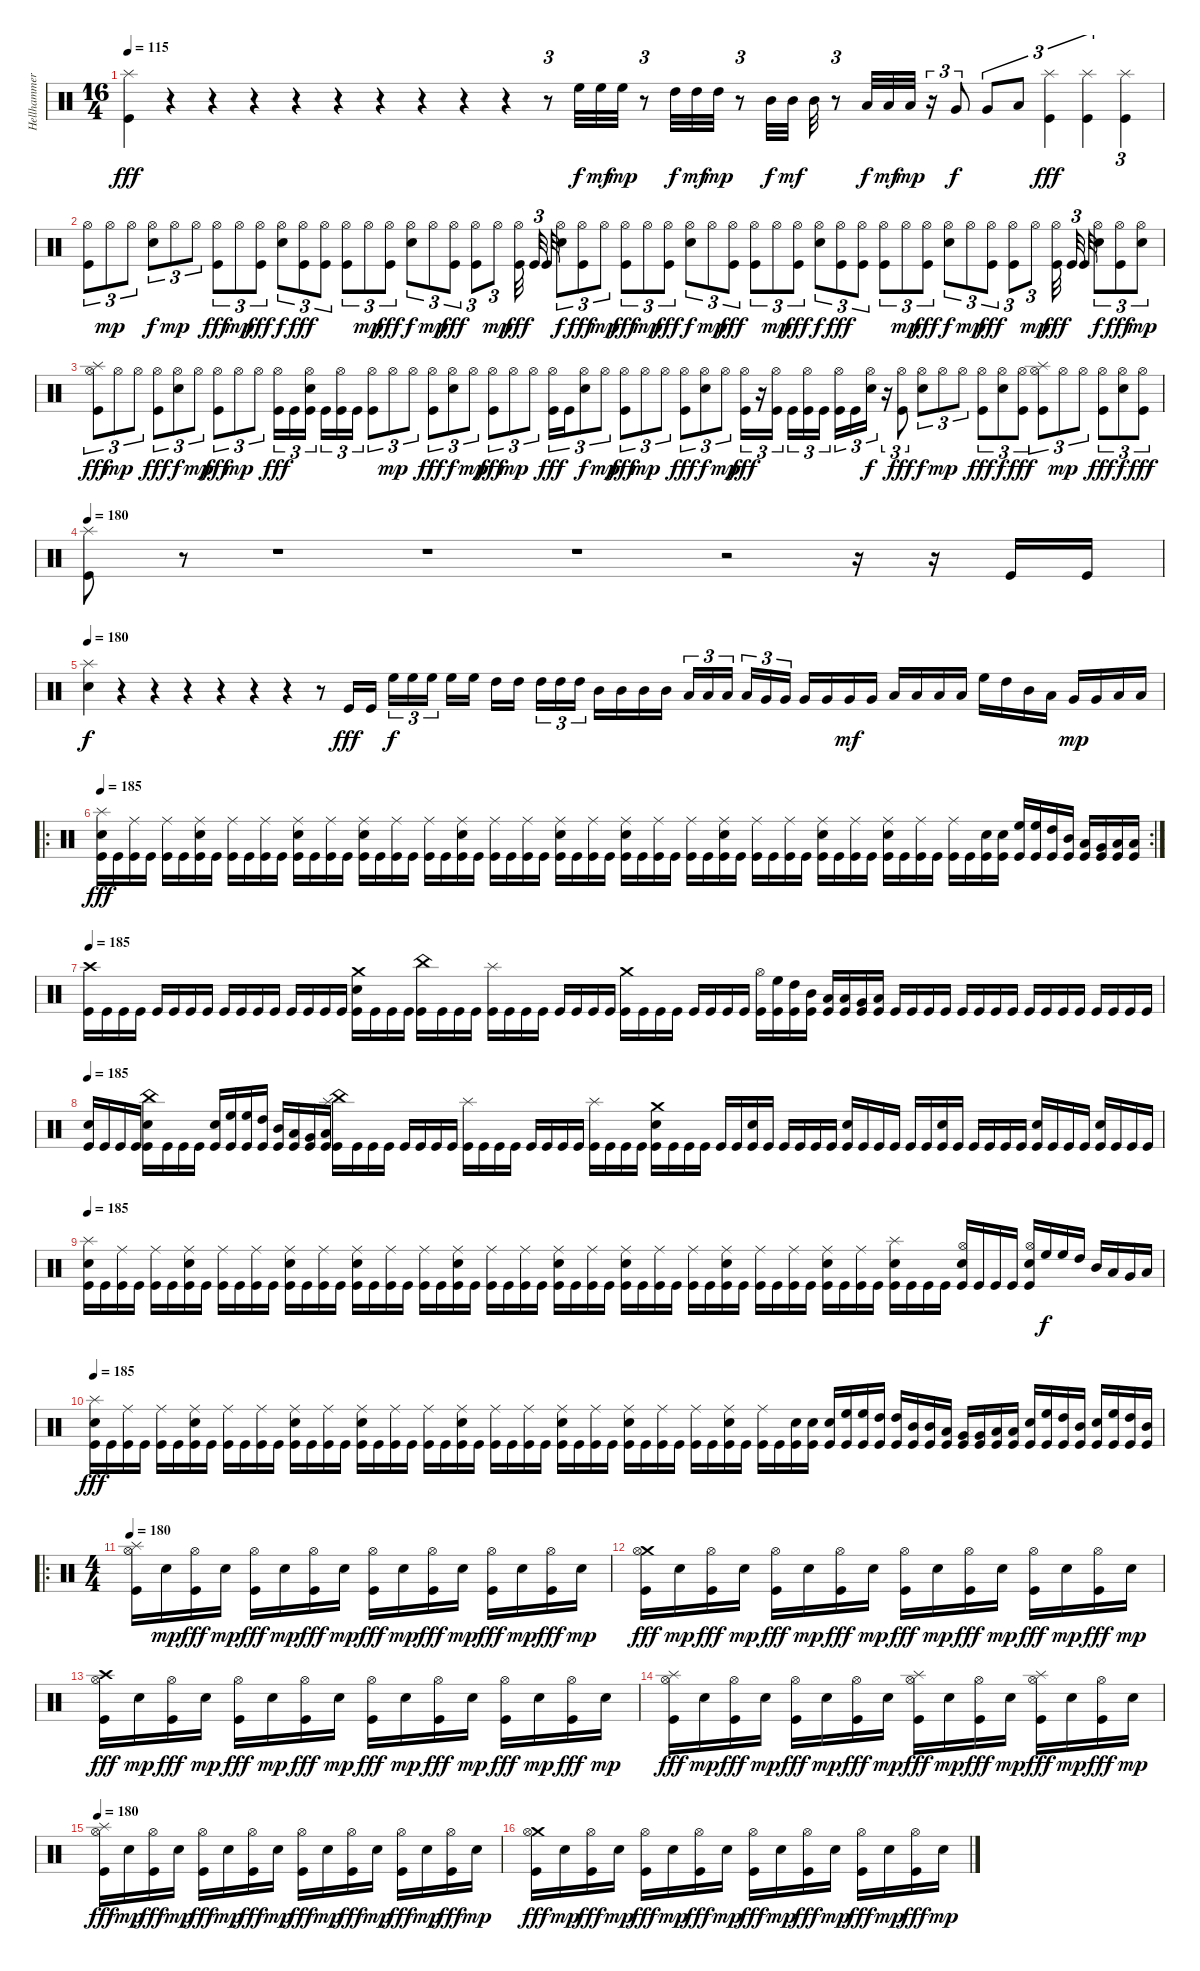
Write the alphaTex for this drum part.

\track ("Hellhammer" "Hellhammer") {instrument percussion}
\staff {score}
\articulation defaults
\ts (16 4)
\tempo 115
\clef neutral
\ks c
("Splash (hit)" "Kick (hit)").4{dy fff} r.4 r.4 r.4 r.4 r.4 r.4 r.4 r.4 r.4 r.8{tu (3 2)} "High Floor Tom (hit)".32{dy f} "High Floor Tom (hit)".32{dy mf} "High Floor Tom (hit)".32{dy mp} r.8{tu (3 2)} "High Tom (hit)".32{dy f} "High Tom (hit)".32{dy mf} "High Tom (hit)".32{dy mp} r.8{tu (3 2)} "Mid Tom (hit)".32{dy f} "Mid Tom (hit)".32{dy mf} "Mid Tom (hit)".32 r.8{tu (3 2)} "Low Tom (hit)".32{dy f} "Low Tom (hit)".32{dy mf} "Low Tom (hit)".32{dy mp} r.16{tu (3 2)} "Very Low Tom (hit)".8{tu (3 2) dy f} "Very Low Tom (hit)".8{tu (3 2)} "Low Floor Tom (hit)".8{tu (3 2)} ("Splash (hit)" "Kick (hit)").4{tu (3 2) dy fff} ("Splash (hit)" "Kick (hit)").4{tu (3 2)} ("Splash (hit)" "Kick (hit)").4{tu (3 2)} |
("Hi-Hat (open)" "Kick (hit)").8{tu (3 2)} "Hi-Hat (open)".8{tu (3 2) dy mp} "Hi-Hat (open)".8{tu (3 2)} ("Hi-Hat (open)" "Electric Snare (hit)").8{tu (3 2) dy f} "Hi-Hat (open)".8{tu (3 2) dy mp} "Hi-Hat (open)".8{tu (3 2)} ("Hi-Hat (open)" "Kick (hit)").8{tu (3 2) dy fff} "Hi-Hat (open)".8{tu (3 2) dy mp} ("Hi-Hat (open)" "Kick (hit)").8{tu (3 2) dy fff} ("Hi-Hat (open)" "Electric Snare (hit)").8{tu (3 2) dy f} ("Hi-Hat (open)" "Kick (hit)").8{tu (3 2) dy fff} ("Hi-Hat (open)" "Kick (hit)").8{tu (3 2)} ("Hi-Hat (open)" "Kick (hit)").8{tu (3 2)} "Hi-Hat (open)".8{tu (3 2) dy mp} ("Hi-Hat (open)" "Kick (hit)").8{tu (3 2) dy fff} ("Hi-Hat (open)" "Electric Snare (hit)").8{tu (3 2) dy f} "Hi-Hat (open)".8{tu (3 2) dy mp} ("Hi-Hat (open)" "Kick (hit)").8{tu (3 2) dy fff} ("Hi-Hat (open)" "Kick (hit)").8{tu (3 2)} "Hi-Hat (open)".8{tu (3 2) dy mp} ("Hi-Hat (open)" "Kick (hit)").32{dy fff} "Kick (hit)".32{tu (3 2)} "Kick (hit)".32 ("Hi-Hat (open)" "Electric Snare (hit)").8{tu (3 2) dy f} ("Hi-Hat (open)" "Kick (hit)").8{tu (3 2) dy fff} "Hi-Hat (open)".8{tu (3 2) dy mp} ("Hi-Hat (open)" "Kick (hit)").8{tu (3 2) dy fff} "Hi-Hat (open)".8{tu (3 2) dy mp} ("Hi-Hat (open)" "Kick (hit)").8{tu (3 2) dy fff} ("Hi-Hat (open)" "Electric Snare (hit)").8{tu (3 2) dy f} "Hi-Hat (open)".8{tu (3 2) dy mp} ("Hi-Hat (open)" "Kick (hit)").8{tu (3 2) dy fff} ("Hi-Hat (open)" "Kick (hit)").8{tu (3 2)} "Hi-Hat (open)".8{tu (3 2) dy mp} ("Hi-Hat (open)" "Kick (hit)").8{tu (3 2) dy fff} ("Hi-Hat (open)" "Electric Snare (hit)").8{tu (3 2) dy f} ("Hi-Hat (open)" "Kick (hit)").8{tu (3 2) dy fff} ("Hi-Hat (open)" "Kick (hit)").8{tu (3 2)} ("Hi-Hat (open)" "Kick (hit)").8{tu (3 2)} "Hi-Hat (open)".8{tu (3 2) dy mp} ("Hi-Hat (open)" "Kick (hit)").8{tu (3 2) dy fff} ("Hi-Hat (open)" "Electric Snare (hit)").8{tu (3 2) dy f} "Hi-Hat (open)".8{tu (3 2) dy mp} ("Hi-Hat (open)" "Kick (hit)").8{tu (3 2) dy fff} ("Hi-Hat (open)" "Kick (hit)").8{tu (3 2)} "Hi-Hat (open)".8{tu (3 2) dy mp} ("Hi-Hat (open)" "Kick (hit)").32{dy fff} "Kick (hit)".32{tu (3 2)} "Kick (hit)".32 ("Hi-Hat (open)" "Electric Snare (hit)").8{tu (3 2) dy f} ("Hi-Hat (open)" "Kick (hit)").8{tu (3 2) dy fff} ("Hi-Hat (open)" "Electric Snare (hit)").8{tu (3 2) dy mp} |
("Splash (hit)" "Hi-Hat (open)" "Kick (hit)").8{tu (3 2) dy fff} "Hi-Hat (open)".8{tu (3 2) dy mp} "Hi-Hat (open)".8{tu (3 2)} ("Hi-Hat (open)" "Kick (hit)").8{tu (3 2) dy fff} ("Hi-Hat (open)" "Electric Snare (hit)").8{tu (3 2) dy f} "Hi-Hat (open)".8{tu (3 2) dy mp} ("Hi-Hat (open)" "Kick (hit)").8{tu (3 2) dy fff} "Hi-Hat (open)".8{tu (3 2) dy mp} "Hi-Hat (open)".8{tu (3 2)} ("Hi-Hat (open)" "Kick (hit)").16{tu (3 2) dy fff} "Kick (hit)".16{tu (3 2)} ("Hi-Hat (open)" "Electric Snare (hit)" "Kick (hit)").16{tu (3 2)} "Kick (hit)".16{tu (3 2)} ("Hi-Hat (open)" "Kick (hit)").16{tu (3 2)} "Kick (hit)".16{tu (3 2)} ("Hi-Hat (open)" "Kick (hit)").8{tu (3 2)} "Hi-Hat (open)".8{tu (3 2) dy mp} "Hi-Hat (open)".8{tu (3 2)} ("Hi-Hat (open)" "Kick (hit)").8{tu (3 2) dy fff} ("Hi-Hat (open)" "Electric Snare (hit)").8{tu (3 2) dy f} "Hi-Hat (open)".8{tu (3 2) dy mp} ("Hi-Hat (open)" "Kick (hit)").8{tu (3 2) dy fff} "Hi-Hat (open)".8{tu (3 2) dy mp} "Hi-Hat (open)".8{tu (3 2)} ("Hi-Hat (open)" "Kick (hit)").16{tu (3 2) dy fff} "Kick (hit)".16{tu (3 2)} ("Hi-Hat (open)" "Electric Snare (hit)").8{tu (3 2) dy f} "Hi-Hat (open)".8{tu (3 2) dy mp} ("Hi-Hat (open)" "Kick (hit)").8{tu (3 2) dy fff} "Hi-Hat (open)".8{tu (3 2) dy mp} "Hi-Hat (open)".8{tu (3 2)} ("Hi-Hat (open)" "Kick (hit)").8{tu (3 2) dy fff} ("Hi-Hat (open)" "Electric Snare (hit)").8{tu (3 2) dy f} "Hi-Hat (open)".8{tu (3 2) dy mp} ("Hi-Hat (open)" "Kick (hit)").16{tu (3 2) dy fff} r.16{tu (3 2)} ("Hi-Hat (open)" "Kick (hit)").16{tu (3 2)} "Kick (hit)".16{tu (3 2)} ("Hi-Hat (open)" "Kick (hit)").16{tu (3 2)} "Kick (hit)".16{tu (3 2)} ("Hi-Hat (open)" "Kick (hit)").16{tu (3 2)} "Kick (hit)".16{tu (3 2)} ("Hi-Hat (open)" "Electric Snare (hit)").16{tu (3 2) dy f} r.16{tu (3 2)} ("Hi-Hat (open)" "Kick (hit)").8{tu (3 2) dy fff} ("Hi-Hat (open)" "Electric Snare (hit)").8{tu (3 2) dy f} "Hi-Hat (open)".8{tu (3 2) dy mp} "Hi-Hat (open)".8{tu (3 2)} ("Hi-Hat (open)" "Kick (hit)").8{tu (3 2) dy fff} ("Hi-Hat (open)" "Electric Snare (hit)").8{tu (3 2) dy f} ("Hi-Hat (open)" "Kick (hit)").8{tu (3 2) dy fff} ("Splash (hit)" "Hi-Hat (open)" "Kick (hit)").8{tu (3 2)} "Hi-Hat (open)".8{tu (3 2) dy mp} "Hi-Hat (open)".8{tu (3 2)} ("Hi-Hat (open)" "Kick (hit)").8{tu (3 2) dy fff} ("Hi-Hat (open)" "Electric Snare (hit)").8{tu (3 2) dy f} ("Hi-Hat (open)" "Kick (hit)").8{tu (3 2) dy fff} |
\tempo 180
("Splash (hit)" "Kick (hit)").8 r.8 r.1 r.1 r.1 r.2 r.16 r.16 "Kick (hit)".16 "Kick (hit)".16 |
\tempo 180
("Splash (hit)" "Electric Snare (hit)").4{dy f} r.4 r.4 r.4 r.4 r.4 r.4 r.8 "Kick (hit)".16{dy fff} "Kick (hit)".16 "High Floor Tom (hit)".16{tu (3 2) dy f} "High Floor Tom (hit)".16{tu (3 2)} "High Floor Tom (hit)".16{tu (3 2)} "High Floor Tom (hit)".16 "High Floor Tom (hit)".16 "High Tom (hit)".16 "High Tom (hit)".16 "High Tom (hit)".16{tu (3 2)} "High Tom (hit)".16{tu (3 2)} "High Tom (hit)".16{tu (3 2)} "Mid Tom (hit)".16 "Mid Tom (hit)".16 "Mid Tom (hit)".16 "Mid Tom (hit)".16 "Low Tom (hit)".16{tu (3 2)} "Low Tom (hit)".16{tu (3 2)} "Low Tom (hit)".16{tu (3 2)} "Low Tom (hit)".16{tu (3 2)} "Very Low Tom (hit)".16{tu (3 2)} "Very Low Tom (hit)".16{tu (3 2)} "Very Low Tom (hit)".16 "Very Low Tom (hit)".16 "Very Low Tom (hit)".16{dy mf} "Very Low Tom (hit)".16 "Low Floor Tom (hit)".16 "Low Floor Tom (hit)".16 "Low Floor Tom (hit)".16 "Low Floor Tom (hit)".16 "High Floor Tom (hit)".16 "High Tom (hit)".16 "Mid Tom (hit)".16 "Low Tom (hit)".16 "Very Low Tom (hit)".16{dy mp} "Very Low Tom (hit)".16 "Low Floor Tom (hit)".16 "Low Floor Tom (hit)".16 |
\ro
\rc 2
\tempo 180
\tempo 185
("Splash (hit)" "Electric Snare (hit)" "Kick (hit)").16{dy fff} "Kick (hit)".16 ("Ride (middle)" "Kick (hit)").16 "Kick (hit)".16 ("Ride (middle)" "Kick (hit)").16 "Kick (hit)".16 ("Ride (middle)" "Electric Snare (hit)" "Kick (hit)").16 "Kick (hit)".16 ("Ride (middle)" "Kick (hit)").16 "Kick (hit)".16 ("Ride (middle)" "Kick (hit)").16 "Kick (hit)".16 ("Ride (middle)" "Electric Snare (hit)" "Kick (hit)").16 "Kick (hit)".16 ("Ride (middle)" "Kick (hit)").16 "Kick (hit)".16 ("Ride (middle)" "Electric Snare (hit)" "Kick (hit)").16 "Kick (hit)".16 ("Ride (middle)" "Kick (hit)").16 "Kick (hit)".16 ("Ride (middle)" "Kick (hit)").16 "Kick (hit)".16 ("Ride (middle)" "Electric Snare (hit)" "Kick (hit)").16 "Kick (hit)".16 ("Ride (middle)" "Kick (hit)").16 "Kick (hit)".16 ("Ride (middle)" "Kick (hit)").16 "Kick (hit)".16 ("Ride (middle)" "Electric Snare (hit)" "Kick (hit)").16 "Kick (hit)".16 ("Ride (middle)" "Kick (hit)").16 "Kick (hit)".16 ("Ride (middle)" "Electric Snare (hit)" "Kick (hit)").16 "Kick (hit)".16 ("Ride (middle)" "Kick (hit)").16 "Kick (hit)".16 ("Ride (middle)" "Kick (hit)").16 "Kick (hit)".16 ("Ride (middle)" "Electric Snare (hit)" "Kick (hit)").16 "Kick (hit)".16 ("Ride (middle)" "Kick (hit)").16 "Kick (hit)".16 ("Ride (middle)" "Kick (hit)").16 "Kick (hit)".16 ("Ride (middle)" "Electric Snare (hit)" "Kick (hit)").16 "Kick (hit)".16 ("Ride (middle)" "Kick (hit)").16 "Kick (hit)".16 ("Ride (middle)" "Electric Snare (hit)" "Kick (hit)").16 "Kick (hit)".16 ("Ride (middle)" "Kick (hit)").16 "Kick (hit)".16 ("Ride (middle)" "Kick (hit)").16 "Kick (hit)".16 ("Electric Snare (hit)" "Kick (hit)").16 ("Electric Snare (hit)" "Kick (hit)").16 ("High Floor Tom (hit)" "Kick (hit)").16 ("High Floor Tom (hit)" "Kick (hit)").16 ("High Tom (hit)" "Kick (hit)").16 ("Mid Tom (hit)" "Kick (hit)").16 ("Low Tom (hit)" "Kick (hit)").16 ("Very Low Tom (hit)" "Kick (hit)").16 ("Low Floor Tom (hit)" "Kick (hit)").16 ("Low Floor Tom (hit)" "Kick (hit)").16 |
\tempo 185
("Crash high (hit)" "Kick (hit)").16 "Kick (hit)".16 "Kick (hit)".16 "Kick (hit)".16 "Kick (hit)".16 "Kick (hit)".16 "Kick (hit)".16 "Kick (hit)".16 "Kick (hit)".16 "Kick (hit)".16 "Kick (hit)".16 "Kick (hit)".16 "Kick (hit)".16 "Kick (hit)".16 "Kick (hit)".16 "Kick (hit)".16 ("Crash medium (hit)" "Electric Snare (hit)" "Kick (hit)").16 "Kick (hit)".16 "Kick (hit)".16 "Kick (hit)".16 ("China (hit)" "Kick (hit)").16 "Kick (hit)".16 "Kick (hit)".16 "Kick (hit)".16 ("Splash (hit)" "Kick (hit)").16 "Kick (hit)".16 "Kick (hit)".16 "Kick (hit)".16 "Kick (hit)".16 "Kick (hit)".16 "Kick (hit)".16 "Kick (hit)".16 ("Crash medium (hit)" "Kick (hit)").16 "Kick (hit)".16 "Kick (hit)".16 "Kick (hit)".16 "Kick (hit)".16 "Kick (hit)".16 "Kick (hit)".16 "Kick (hit)".16 ("Hi-Hat (open)" "Kick (hit)").16 ("High Floor Tom (hit)" "Kick (hit)").16 ("High Tom (hit)" "Kick (hit)").16 ("Mid Tom (hit)" "Kick (hit)").16 ("Low Tom (hit)" "Kick (hit)").16 ("Low Tom (hit)" "Kick (hit)").16 ("Very Low Tom (hit)" "Kick (hit)").16 ("Low Floor Tom (hit)" "Kick (hit)").16 "Kick (hit)".16 "Kick (hit)".16 "Kick (hit)".16 "Kick (hit)".16 "Kick (hit)".16 "Kick (hit)".16 "Kick (hit)".16 "Kick (hit)".16 "Kick (hit)".16 "Kick (hit)".16 "Kick (hit)".16 "Kick (hit)".16 "Kick (hit)".16 "Kick (hit)".16 "Kick (hit)".16 "Kick (hit)".16 |
\tempo 185
("Electric Snare (hit)" "Kick (hit)").16 "Kick (hit)".16 "Kick (hit)".16 "Kick (hit)".16 ("China (hit)" "Electric Snare (hit)" "Kick (hit)").16 "Kick (hit)".16 "Kick (hit)".16 "Kick (hit)".16 ("Electric Snare (hit)" "Kick (hit)").16 ("High Floor Tom (hit)" "Kick (hit)").16 ("High Floor Tom (hit)" "Kick (hit)").16 ("High Tom (hit)" "Kick (hit)").16 ("Mid Tom (hit)" "Kick (hit)").16 ("Low Tom (hit)" "Kick (hit)").16 ("Very Low Tom (hit)" "Kick (hit)").16 ("Low Floor Tom (hit)" "Kick (hit)").16 ("China (hit)" "Splash (hit)" "Kick (hit)").16 "Kick (hit)".16 "Kick (hit)".16 "Kick (hit)".16 "Kick (hit)".16 "Kick (hit)".16 "Kick (hit)".16 "Kick (hit)".16 ("Splash (hit)" "Kick (hit)").16 "Kick (hit)".16 "Kick (hit)".16 "Kick (hit)".16 "Kick (hit)".16 "Kick (hit)".16 "Kick (hit)".16 "Kick (hit)".16 ("Splash (hit)" "Kick (hit)").16 "Kick (hit)".16 "Kick (hit)".16 "Kick (hit)".16 ("Crash medium (hit)" "Electric Snare (hit)" "Kick (hit)").16 "Kick (hit)".16 "Kick (hit)".16 "Kick (hit)".16 "Kick (hit)".16 "Kick (hit)".16 ("Electric Snare (hit)" "Kick (hit)").16 "Kick (hit)".16 "Kick (hit)".16 "Kick (hit)".16 "Kick (hit)".16 "Kick (hit)".16 ("Electric Snare (hit)" "Kick (hit)").16 "Kick (hit)".16 "Kick (hit)".16 "Kick (hit)".16 "Kick (hit)".16 "Kick (hit)".16 ("Electric Snare (hit)" "Kick (hit)").16 "Kick (hit)".16 "Kick (hit)".16 "Kick (hit)".16 "Kick (hit)".16 "Kick (hit)".16 ("Electric Snare (hit)" "Kick (hit)").16 "Kick (hit)".16 "Kick (hit)".16 "Kick (hit)".16 ("Electric Snare (hit)" "Kick (hit)").16 "Kick (hit)".16 "Kick (hit)".16 "Kick (hit)".16 |
\tempo 180
\tempo 185
("Splash (hit)" "Electric Snare (hit)" "Kick (hit)").16 "Kick (hit)".16 ("Ride (middle)" "Kick (hit)").16 "Kick (hit)".16 ("Ride (middle)" "Kick (hit)").16 "Kick (hit)".16 ("Ride (middle)" "Electric Snare (hit)" "Kick (hit)").16 "Kick (hit)".16 ("Ride (middle)" "Kick (hit)").16 "Kick (hit)".16 ("Ride (middle)" "Kick (hit)").16 "Kick (hit)".16 ("Ride (middle)" "Electric Snare (hit)" "Kick (hit)").16 "Kick (hit)".16 ("Ride (middle)" "Kick (hit)").16 "Kick (hit)".16 ("Ride (middle)" "Electric Snare (hit)" "Kick (hit)").16 "Kick (hit)".16 ("Ride (middle)" "Kick (hit)").16 "Kick (hit)".16 ("Ride (middle)" "Kick (hit)").16 "Kick (hit)".16 ("Ride (middle)" "Electric Snare (hit)" "Kick (hit)").16 "Kick (hit)".16 ("Ride (middle)" "Kick (hit)").16 "Kick (hit)".16 ("Ride (middle)" "Kick (hit)").16 "Kick (hit)".16 ("Ride (middle)" "Electric Snare (hit)" "Kick (hit)").16 "Kick (hit)".16 ("Ride (middle)" "Kick (hit)").16 "Kick (hit)".16 ("Ride (middle)" "Electric Snare (hit)" "Kick (hit)").16 "Kick (hit)".16 ("Ride (middle)" "Kick (hit)").16 "Kick (hit)".16 ("Ride (middle)" "Kick (hit)").16 "Kick (hit)".16 ("Ride (middle)" "Electric Snare (hit)" "Kick (hit)").16 "Kick (hit)".16 ("Ride (middle)" "Kick (hit)").16 "Kick (hit)".16 ("Ride (middle)" "Kick (hit)").16 "Kick (hit)".16 ("Ride (middle)" "Electric Snare (hit)" "Kick (hit)").16 "Kick (hit)".16 ("Ride (middle)" "Kick (hit)").16 "Kick (hit)".16 ("Splash (hit)" "Electric Snare (hit)" "Kick (hit)").16 "Kick (hit)".16 "Kick (hit)".16 "Kick (hit)".16 ("Hi-Hat (open)" "Electric Snare (hit)" "Kick (hit)").16 "Kick (hit)".16 "Kick (hit)".16 "Kick (hit)".16 ("Hi-Hat (open)" "Electric Snare (hit)" "Kick (hit)").16 "High Floor Tom (hit)".16{dy f} "High Floor Tom (hit)".16 "High Tom (hit)".16 "Mid Tom (hit)".16 "Low Tom (hit)".16 "Very Low Tom (hit)".16 "Low Floor Tom (hit)".16 |
\tempo 180
\tempo 185
("Splash (hit)" "Electric Snare (hit)" "Kick (hit)").16{dy fff} "Kick (hit)".16 ("Ride (middle)" "Kick (hit)").16 "Kick (hit)".16 ("Ride (middle)" "Kick (hit)").16 "Kick (hit)".16 ("Ride (middle)" "Electric Snare (hit)" "Kick (hit)").16 "Kick (hit)".16 ("Ride (middle)" "Kick (hit)").16 "Kick (hit)".16 ("Ride (middle)" "Kick (hit)").16 "Kick (hit)".16 ("Ride (middle)" "Electric Snare (hit)" "Kick (hit)").16 "Kick (hit)".16 ("Ride (middle)" "Kick (hit)").16 "Kick (hit)".16 ("Ride (middle)" "Electric Snare (hit)" "Kick (hit)").16 "Kick (hit)".16 ("Ride (middle)" "Kick (hit)").16 "Kick (hit)".16 ("Ride (middle)" "Kick (hit)").16 "Kick (hit)".16 ("Ride (middle)" "Electric Snare (hit)" "Kick (hit)").16 "Kick (hit)".16 ("Ride (middle)" "Kick (hit)").16 "Kick (hit)".16 ("Ride (middle)" "Kick (hit)").16 "Kick (hit)".16 ("Ride (middle)" "Electric Snare (hit)" "Kick (hit)").16 "Kick (hit)".16 ("Ride (middle)" "Kick (hit)").16 "Kick (hit)".16 ("Ride (middle)" "Electric Snare (hit)" "Kick (hit)").16 "Kick (hit)".16 ("Ride (middle)" "Kick (hit)").16 "Kick (hit)".16 ("Ride (middle)" "Kick (hit)").16 "Kick (hit)".16 ("Ride (middle)" "Electric Snare (hit)" "Kick (hit)").16 "Kick (hit)".16 ("Ride (middle)" "Kick (hit)").16 "Kick (hit)".16 ("Electric Snare (hit)" "Kick (hit)").16 ("Electric Snare (hit)" "Kick (hit)").16 ("Electric Snare (hit)" "Kick (hit)").16 ("High Floor Tom (hit)" "Kick (hit)").16 ("High Floor Tom (hit)" "Kick (hit)").16 ("High Tom (hit)" "Kick (hit)").16 ("High Tom (hit)" "Kick (hit)").16 ("Mid Tom (hit)" "Kick (hit)").16 ("Mid Tom (hit)" "Kick (hit)").16 ("Low Tom (hit)" "Kick (hit)").16 ("Very Low Tom (hit)" "Kick (hit)").16 ("Very Low Tom (hit)" "Kick (hit)").16 ("Low Floor Tom (hit)" "Kick (hit)").16 ("Low Floor Tom (hit)" "Kick (hit)").16 ("Electric Snare (hit)" "Kick (hit)").16 ("High Floor Tom (hit)" "Kick (hit)").16 ("High Tom (hit)" "Kick (hit)").16 ("Mid Tom (hit)" "Kick (hit)").16 ("Electric Snare (hit)" "Kick (hit)").16 ("High Floor Tom (hit)" "Kick (hit)").16 ("High Tom (hit)" "Kick (hit)").16 ("Mid Tom (hit)" "Kick (hit)").16 |
\ro
\ts (4 4)
\tempo 180
("Splash (hit)" "Hi-Hat (open)" "Kick (hit)").16 "Electric Snare (hit)".16{dy mp} ("Hi-Hat (open)" "Kick (hit)").16{dy fff} "Electric Snare (hit)".16{dy mp} ("Hi-Hat (open)" "Kick (hit)").16{dy fff} "Electric Snare (hit)".16{dy mp} ("Hi-Hat (open)" "Kick (hit)").16{dy fff} "Electric Snare (hit)".16{dy mp} ("Hi-Hat (open)" "Kick (hit)").16{dy fff} "Electric Snare (hit)".16{dy mp} ("Hi-Hat (open)" "Kick (hit)").16{dy fff} "Electric Snare (hit)".16{dy mp} ("Hi-Hat (open)" "Kick (hit)").16{dy fff} "Electric Snare (hit)".16{dy mp} ("Hi-Hat (open)" "Kick (hit)").16{dy fff} "Electric Snare (hit)".16{dy mp} |
("Crash medium (hit)" "Hi-Hat (open)" "Kick (hit)").16{dy fff} "Electric Snare (hit)".16{dy mp} ("Hi-Hat (open)" "Kick (hit)").16{dy fff} "Electric Snare (hit)".16{dy mp} ("Hi-Hat (open)" "Kick (hit)").16{dy fff} "Electric Snare (hit)".16{dy mp} ("Hi-Hat (open)" "Kick (hit)").16{dy fff} "Electric Snare (hit)".16{dy mp} ("Hi-Hat (open)" "Kick (hit)").16{dy fff} "Electric Snare (hit)".16{dy mp} ("Hi-Hat (open)" "Kick (hit)").16{dy fff} "Electric Snare (hit)".16{dy mp} ("Hi-Hat (open)" "Kick (hit)").16{dy fff} "Electric Snare (hit)".16{dy mp} ("Hi-Hat (open)" "Kick (hit)").16{dy fff} "Electric Snare (hit)".16{dy mp} |
("Crash high (hit)" "Hi-Hat (open)" "Kick (hit)").16{dy fff} "Electric Snare (hit)".16{dy mp} ("Hi-Hat (open)" "Kick (hit)").16{dy fff} "Electric Snare (hit)".16{dy mp} ("Hi-Hat (open)" "Kick (hit)").16{dy fff} "Electric Snare (hit)".16{dy mp} ("Hi-Hat (open)" "Kick (hit)").16{dy fff} "Electric Snare (hit)".16{dy mp} ("Hi-Hat (open)" "Kick (hit)").16{dy fff} "Electric Snare (hit)".16{dy mp} ("Hi-Hat (open)" "Kick (hit)").16{dy fff} "Electric Snare (hit)".16{dy mp} ("Hi-Hat (open)" "Kick (hit)").16{dy fff} "Electric Snare (hit)".16{dy mp} ("Hi-Hat (open)" "Kick (hit)").16{dy fff} "Electric Snare (hit)".16{dy mp} |
("Splash (hit)" "Hi-Hat (open)" "Kick (hit)").16{dy fff} "Electric Snare (hit)".16{dy mp} ("Hi-Hat (open)" "Kick (hit)").16{dy fff} "Electric Snare (hit)".16{dy mp} ("Hi-Hat (open)" "Kick (hit)").16{dy fff} "Electric Snare (hit)".16{dy mp} ("Hi-Hat (open)" "Kick (hit)").16{dy fff} "Electric Snare (hit)".16{dy mp} ("Splash (hit)" "Hi-Hat (open)" "Kick (hit)").16{dy fff} "Electric Snare (hit)".16{dy mp} ("Hi-Hat (open)" "Kick (hit)").16{dy fff} "Electric Snare (hit)".16{dy mp} ("Splash (hit)" "Hi-Hat (open)" "Kick (hit)").16{dy fff} "Electric Snare (hit)".16{dy mp} ("Hi-Hat (open)" "Kick (hit)").16{dy fff} "Electric Snare (hit)".16{dy mp} |
\tempo 180
("Splash (hit)" "Hi-Hat (open)" "Kick (hit)").16{dy fff} "Electric Snare (hit)".16{dy mp} ("Hi-Hat (open)" "Kick (hit)").16{dy fff} "Electric Snare (hit)".16{dy mp} ("Hi-Hat (open)" "Kick (hit)").16{dy fff} "Electric Snare (hit)".16{dy mp} ("Hi-Hat (open)" "Kick (hit)").16{dy fff} "Electric Snare (hit)".16{dy mp} ("Hi-Hat (open)" "Kick (hit)").16{dy fff} "Electric Snare (hit)".16{dy mp} ("Hi-Hat (open)" "Kick (hit)").16{dy fff} "Electric Snare (hit)".16{dy mp} ("Hi-Hat (open)" "Kick (hit)").16{dy fff} "Electric Snare (hit)".16{dy mp} ("Hi-Hat (open)" "Kick (hit)").16{dy fff} "Electric Snare (hit)".16{dy mp} |
("Crash medium (hit)" "Hi-Hat (open)" "Kick (hit)").16{dy fff} "Electric Snare (hit)".16{dy mp} ("Hi-Hat (open)" "Kick (hit)").16{dy fff} "Electric Snare (hit)".16{dy mp} ("Hi-Hat (open)" "Kick (hit)").16{dy fff} "Electric Snare (hit)".16{dy mp} ("Hi-Hat (open)" "Kick (hit)").16{dy fff} "Electric Snare (hit)".16{dy mp} ("Hi-Hat (open)" "Kick (hit)").16{dy fff} "Electric Snare (hit)".16{dy mp} ("Hi-Hat (open)" "Kick (hit)").16{dy fff} "Electric Snare (hit)".16{dy mp} ("Hi-Hat (open)" "Kick (hit)").16{dy fff} "Electric Snare (hit)".16{dy mp} ("Hi-Hat (open)" "Kick (hit)").16{dy fff} "Electric Snare (hit)".16{dy mp}
